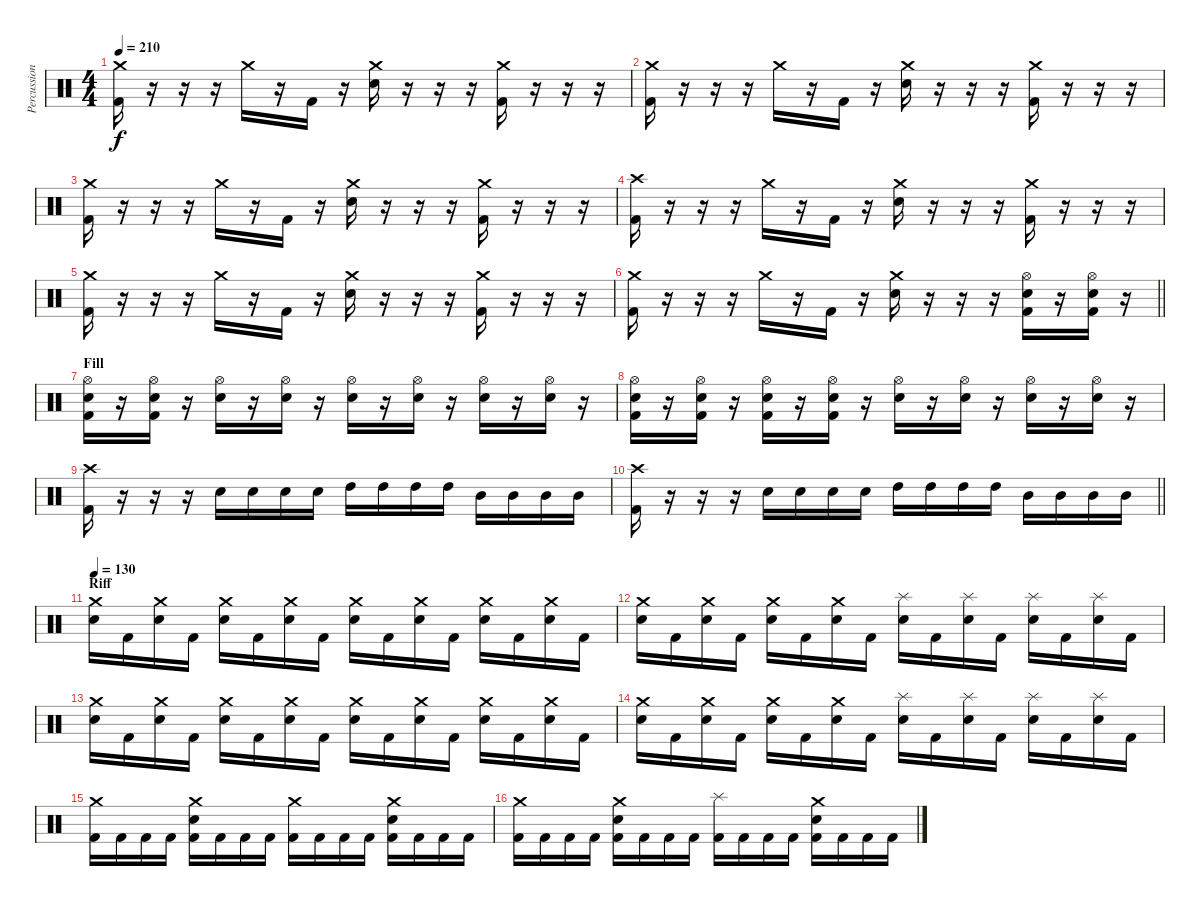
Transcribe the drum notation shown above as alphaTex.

\track ("Percussion" "Percussion") {instrument percussion}
\staff {score}
\articulation defaults
\ts (4 4)
\tempo 210
\clef neutral
\ks c
("Crash medium (hit)" "Kick (hit) 2").16{dy f} r.16 r.16 r.16 "Crash medium (hit)".16 r.16 "Kick (hit) 2".16 r.16 ("Crash medium (hit)" "Snare (hit) 2").16 r.16 r.16 r.16 ("Crash medium (hit)" "Kick (hit) 2").16 r.16 r.16 r.16 |
("Crash medium (hit)" "Kick (hit) 2").16 r.16 r.16 r.16 "Crash medium (hit)".16 r.16 "Kick (hit) 2".16 r.16 ("Crash medium (hit)" "Snare (hit) 2").16 r.16 r.16 r.16 ("Crash medium (hit)" "Kick (hit) 2").16 r.16 r.16 r.16 |
("Crash medium (hit)" "Kick (hit) 2").16 r.16 r.16 r.16 "Crash medium (hit)".16 r.16 "Kick (hit) 2".16 r.16 ("Crash medium (hit)" "Snare (hit) 2").16 r.16 r.16 r.16 ("Crash medium (hit)" "Kick (hit) 2").16 r.16 r.16 r.16 |
("Crash high (hit)" "Kick (hit) 2").16 r.16 r.16 r.16 "Crash medium (hit)".16 r.16 "Kick (hit) 2".16 r.16 ("Crash medium (hit)" "Snare (hit) 2").16 r.16 r.16 r.16 ("Crash medium (hit)" "Kick (hit) 2").16 r.16 r.16 r.16 |
("Crash medium (hit)" "Kick (hit) 2").16 r.16 r.16 r.16 "Crash medium (hit)".16 r.16 "Kick (hit) 2".16 r.16 ("Crash medium (hit)" "Snare (hit) 2").16 r.16 r.16 r.16 ("Crash medium (hit)" "Kick (hit) 2").16 r.16 r.16 r.16 |
\barLineRight lightlight
("Crash medium (hit)" "Kick (hit) 2").16 r.16 r.16 r.16 "Crash medium (hit)".16 r.16 "Kick (hit) 2".16 r.16 ("Crash medium (hit)" "Snare (hit) 2").16 r.16 r.16 r.16 ("Hi-Hat (open)" "Snare (hit) 2" "Kick (hit) 2").16 r.16 ("Hi-Hat (open)" "Snare (hit) 2" "Kick (hit) 2").16 r.16 |
\section ("" "Fill")
("Hi-Hat (open)" "Snare (hit) 2" "Kick (hit) 2").16 r.16 ("Hi-Hat (open)" "Snare (hit) 2" "Kick (hit) 2").16 r.16 ("Hi-Hat (open)" "Snare (hit) 2").16 r.16 ("Hi-Hat (open)" "Snare (hit) 2").16 r.16 ("Hi-Hat (open)" "Snare (hit) 2").16 r.16 ("Hi-Hat (open)" "Snare (hit) 2").16 r.16 ("Hi-Hat (open)" "Snare (hit) 2").16 r.16 ("Hi-Hat (open)" "Snare (hit) 2").16 r.16 |
("Hi-Hat (open)" "Snare (hit) 2" "Kick (hit) 2").16 r.16 ("Hi-Hat (open)" "Snare (hit) 2" "Kick (hit) 2").16 r.16 ("Hi-Hat (open)" "Snare (hit) 2" "Kick (hit) 2").16 r.16 ("Hi-Hat (open)" "Snare (hit) 2" "Kick (hit) 2").16 r.16 ("Hi-Hat (open)" "Snare (hit) 2").16 r.16 ("Hi-Hat (open)" "Snare (hit) 2").16 r.16 ("Hi-Hat (open)" "Snare (hit) 2").16 r.16 ("Hi-Hat (open)" "Snare (hit) 2").16 r.16 |
("Crash high (hit)" "Kick (hit) 2").16 r.16 r.16 r.16 "Snare (hit) 2".16 "Snare (hit) 2".16 "Snare (hit) 2".16 "Snare (hit) 2".16 "High Tom (hit)".16 "High Tom (hit)".16 "High Tom (hit)".16 "High Tom (hit)".16 "Mid Tom (hit)".16 "Mid Tom (hit)".16 "Mid Tom (hit)".16 "Mid Tom (hit)".16 |
\barLineRight lightlight
("Crash high (hit)" "Kick (hit) 2").16 r.16 r.16 r.16 "Snare (hit) 2".16 "Snare (hit) 2".16 "Snare (hit) 2".16 "Snare (hit) 2".16 "High Tom (hit)".16 "High Tom (hit)".16 "High Tom (hit)".16 "High Tom (hit)".16 "Mid Tom (hit)".16 "Mid Tom (hit)".16 "Mid Tom (hit)".16 "Mid Tom (hit)".16 |
\section ("" "Riff")
\tempo 130
("Crash medium (hit)" "Snare (hit) 2").16 "Kick (hit) 2".16 ("Crash medium (hit)" "Snare (hit) 2").16 "Kick (hit) 2".16 ("Crash medium (hit)" "Snare (hit) 2").16 "Kick (hit) 2".16 ("Crash medium (hit)" "Snare (hit) 2").16 "Kick (hit) 2".16 ("Crash medium (hit)" "Snare (hit) 2").16 "Kick (hit) 2".16 ("Crash medium (hit)" "Snare (hit) 2").16 "Kick (hit) 2".16 ("Crash medium (hit)" "Snare (hit) 2").16 "Kick (hit) 2".16 ("Crash medium (hit)" "Snare (hit) 2").16 "Kick (hit) 2".16 |
("Crash medium (hit)" "Snare (hit) 2").16 "Kick (hit) 2".16 ("Crash medium (hit)" "Snare (hit) 2").16 "Kick (hit) 2".16 ("Crash medium (hit)" "Snare (hit) 2").16 "Kick (hit) 2".16 ("Crash medium (hit)" "Snare (hit) 2").16 "Kick (hit) 2".16 ("Splash (hit)" "Snare (hit) 2").16 "Kick (hit) 2".16 ("Splash (hit)" "Snare (hit) 2").16 "Kick (hit) 2".16 ("Splash (hit)" "Snare (hit) 2").16 "Kick (hit) 2".16 ("Splash (hit)" "Snare (hit) 2").16 "Kick (hit) 2".16 |
("Crash medium (hit)" "Snare (hit) 2").16 "Kick (hit) 2".16 ("Crash medium (hit)" "Snare (hit) 2").16 "Kick (hit) 2".16 ("Crash medium (hit)" "Snare (hit) 2").16 "Kick (hit) 2".16 ("Crash medium (hit)" "Snare (hit) 2").16 "Kick (hit) 2".16 ("Crash medium (hit)" "Snare (hit) 2").16 "Kick (hit) 2".16 ("Crash medium (hit)" "Snare (hit) 2").16 "Kick (hit) 2".16 ("Crash medium (hit)" "Snare (hit) 2").16 "Kick (hit) 2".16 ("Crash medium (hit)" "Snare (hit) 2").16 "Kick (hit) 2".16 |
("Crash medium (hit)" "Snare (hit) 2").16 "Kick (hit) 2".16 ("Crash medium (hit)" "Snare (hit) 2").16 "Kick (hit) 2".16 ("Crash medium (hit)" "Snare (hit) 2").16 "Kick (hit) 2".16 ("Crash medium (hit)" "Snare (hit) 2").16 "Kick (hit) 2".16 ("Splash (hit)" "Snare (hit) 2").16 "Kick (hit) 2".16 ("Splash (hit)" "Snare (hit) 2").16 "Kick (hit) 2".16 ("Splash (hit)" "Snare (hit) 2").16 "Kick (hit) 2".16 ("Splash (hit)" "Snare (hit) 2").16 "Kick (hit) 2".16 |
("Crash medium (hit)" "Kick (hit) 2").16 "Kick (hit) 2".16 "Kick (hit) 2".16 "Kick (hit) 2".16 ("Crash medium (hit)" "Snare (hit) 2" "Kick (hit) 2").16 "Kick (hit) 2".16 "Kick (hit) 2".16 "Kick (hit) 2".16 ("Crash medium (hit)" "Kick (hit) 2").16 "Kick (hit) 2".16 "Kick (hit) 2".16 "Kick (hit) 2".16 ("Crash medium (hit)" "Snare (hit) 2" "Kick (hit) 2").16 "Kick (hit) 2".16 "Kick (hit) 2".16 "Kick (hit) 2".16 |
("Crash medium (hit)" "Kick (hit) 2").16 "Kick (hit) 2".16 "Kick (hit) 2".16 "Kick (hit) 2".16 ("Crash medium (hit)" "Snare (hit) 2" "Kick (hit) 2").16 "Kick (hit) 2".16 "Kick (hit) 2".16 "Kick (hit) 2".16 ("Splash (hit)" "Kick (hit) 2").16 "Kick (hit) 2".16 "Kick (hit) 2".16 "Kick (hit) 2".16 ("Crash medium (hit)" "Snare (hit) 2" "Kick (hit) 2").16 "Kick (hit) 2".16 "Kick (hit) 2".16 "Kick (hit) 2".16
